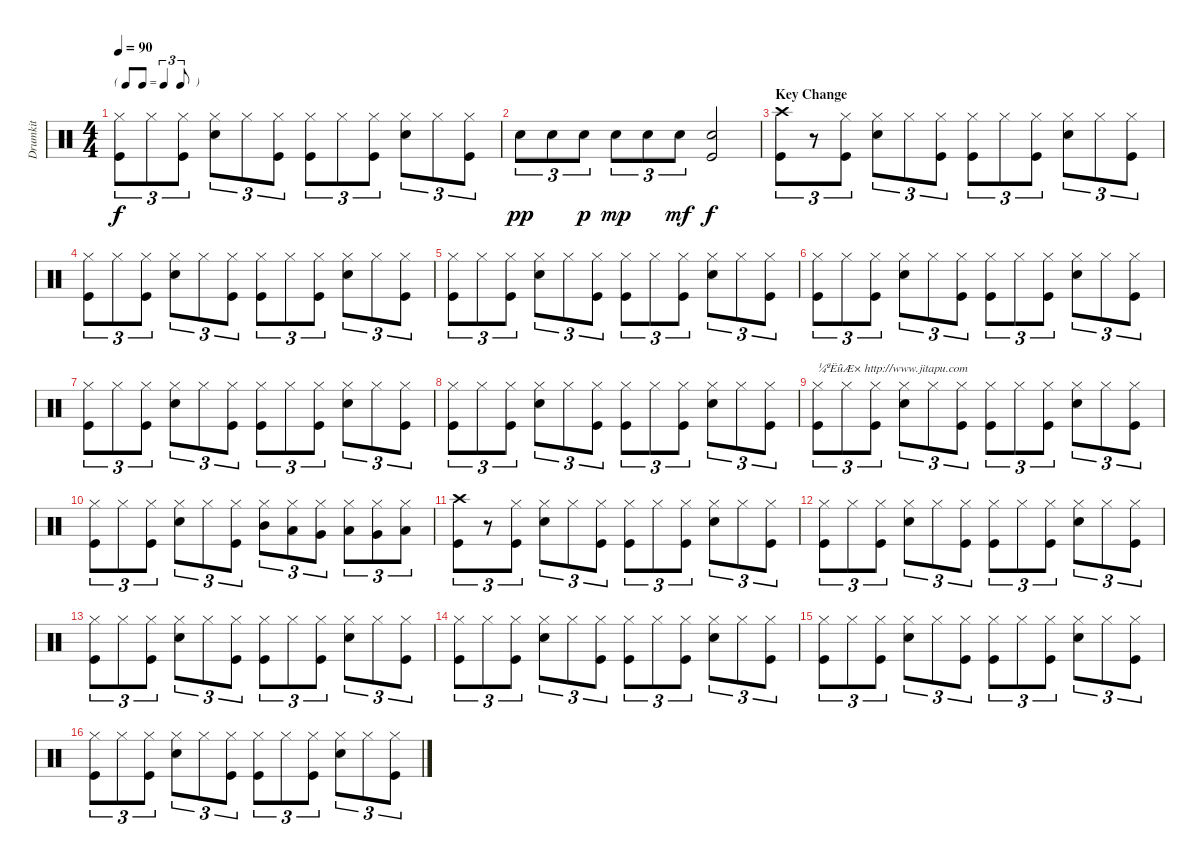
\track ("Drumkit" "Drumkit") {instrument percussion}
\staff {score}
\articulation defaults
\ts (4 4)
\tf triplet8th
\tempo 90
\clef neutral
\ks c
("Hi-Hat (closed)" "Kick (hit)").8{tu (3 2) dy f} "Hi-Hat (closed)".8{tu (3 2)} ("Hi-Hat (closed)" "Kick (hit)").8{tu (3 2)} ("Hi-Hat (closed)" "Snare (hit) 2").8{tu (3 2)} "Hi-Hat (closed)".8{tu (3 2)} ("Hi-Hat (closed)" "Kick (hit)").8{tu (3 2)} ("Hi-Hat (closed)" "Kick (hit)").8{tu (3 2)} "Hi-Hat (closed)".8{tu (3 2)} ("Hi-Hat (closed)" "Kick (hit)").8{tu (3 2)} ("Hi-Hat (closed)" "Snare (hit) 2").8{tu (3 2)} "Hi-Hat (closed)".8{tu (3 2)} ("Hi-Hat (closed)" "Kick (hit)").8{tu (3 2)} |
"Snare (hit) 2".8{tu (3 2) dy pp} "Snare (hit) 2".8{tu (3 2)} "Snare (hit) 2".8{tu (3 2) dy p} "Snare (hit) 2".8{tu (3 2) dy mp} "Snare (hit) 2".8{tu (3 2)} "Snare (hit) 2".8{tu (3 2) dy mf} ("Kick (hit)" "Snare (hit) 2").2{dy f} |
\section ("" "Key Change")
("Crash high (hit)" "Kick (hit)").8{tu (3 2)} r.8{tu (3 2)} ("Hi-Hat (closed)" "Kick (hit)").8{tu (3 2)} ("Hi-Hat (closed)" "Snare (hit) 2").8{tu (3 2)} "Hi-Hat (closed)".8{tu (3 2)} ("Hi-Hat (closed)" "Kick (hit)").8{tu (3 2)} ("Hi-Hat (closed)" "Kick (hit)").8{tu (3 2)} "Hi-Hat (closed)".8{tu (3 2)} ("Hi-Hat (closed)" "Kick (hit)").8{tu (3 2)} ("Hi-Hat (closed)" "Snare (hit) 2").8{tu (3 2)} "Hi-Hat (closed)".8{tu (3 2)} ("Hi-Hat (closed)" "Kick (hit)").8{tu (3 2)} |
("Hi-Hat (closed)" "Kick (hit)").8{tu (3 2)} "Hi-Hat (closed)".8{tu (3 2)} ("Hi-Hat (closed)" "Kick (hit)").8{tu (3 2)} ("Hi-Hat (closed)" "Snare (hit) 2").8{tu (3 2)} "Hi-Hat (closed)".8{tu (3 2)} ("Hi-Hat (closed)" "Kick (hit)").8{tu (3 2)} ("Hi-Hat (closed)" "Kick (hit)").8{tu (3 2)} "Hi-Hat (closed)".8{tu (3 2)} ("Hi-Hat (closed)" "Kick (hit)").8{tu (3 2)} ("Hi-Hat (closed)" "Snare (hit) 2").8{tu (3 2)} "Hi-Hat (closed)".8{tu (3 2)} ("Hi-Hat (closed)" "Kick (hit)").8{tu (3 2)} |
("Hi-Hat (closed)" "Kick (hit)").8{tu (3 2)} "Hi-Hat (closed)".8{tu (3 2)} ("Hi-Hat (closed)" "Kick (hit)").8{tu (3 2)} ("Hi-Hat (closed)" "Snare (hit) 2").8{tu (3 2)} "Hi-Hat (closed)".8{tu (3 2)} ("Hi-Hat (closed)" "Kick (hit)").8{tu (3 2)} ("Hi-Hat (closed)" "Kick (hit)").8{tu (3 2)} "Hi-Hat (closed)".8{tu (3 2)} ("Hi-Hat (closed)" "Kick (hit)").8{tu (3 2)} ("Hi-Hat (closed)" "Snare (hit) 2").8{tu (3 2)} "Hi-Hat (closed)".8{tu (3 2)} ("Hi-Hat (closed)" "Kick (hit)").8{tu (3 2)} |
("Hi-Hat (closed)" "Kick (hit)").8{tu (3 2)} "Hi-Hat (closed)".8{tu (3 2)} ("Hi-Hat (closed)" "Kick (hit)").8{tu (3 2)} ("Hi-Hat (closed)" "Snare (hit) 2").8{tu (3 2)} "Hi-Hat (closed)".8{tu (3 2)} ("Hi-Hat (closed)" "Kick (hit)").8{tu (3 2)} ("Hi-Hat (closed)" "Kick (hit)").8{tu (3 2)} "Hi-Hat (closed)".8{tu (3 2)} ("Hi-Hat (closed)" "Kick (hit)").8{tu (3 2)} ("Hi-Hat (closed)" "Snare (hit) 2").8{tu (3 2)} "Hi-Hat (closed)".8{tu (3 2)} ("Hi-Hat (closed)" "Kick (hit)").8{tu (3 2)} |
("Hi-Hat (closed)" "Kick (hit)").8{tu (3 2)} "Hi-Hat (closed)".8{tu (3 2)} ("Hi-Hat (closed)" "Kick (hit)").8{tu (3 2)} ("Hi-Hat (closed)" "Snare (hit) 2").8{tu (3 2)} "Hi-Hat (closed)".8{tu (3 2)} ("Hi-Hat (closed)" "Kick (hit)").8{tu (3 2)} ("Hi-Hat (closed)" "Kick (hit)").8{tu (3 2)} "Hi-Hat (closed)".8{tu (3 2)} ("Hi-Hat (closed)" "Kick (hit)").8{tu (3 2)} ("Hi-Hat (closed)" "Snare (hit) 2").8{tu (3 2)} "Hi-Hat (closed)".8{tu (3 2)} ("Hi-Hat (closed)" "Kick (hit)").8{tu (3 2)} |
("Hi-Hat (closed)" "Kick (hit)").8{tu (3 2)} "Hi-Hat (closed)".8{tu (3 2)} ("Hi-Hat (closed)" "Kick (hit)").8{tu (3 2)} ("Hi-Hat (closed)" "Snare (hit) 2").8{tu (3 2)} "Hi-Hat (closed)".8{tu (3 2)} ("Hi-Hat (closed)" "Kick (hit)").8{tu (3 2)} ("Hi-Hat (closed)" "Kick (hit)").8{tu (3 2)} "Hi-Hat (closed)".8{tu (3 2)} ("Hi-Hat (closed)" "Kick (hit)").8{tu (3 2)} ("Hi-Hat (closed)" "Snare (hit) 2").8{tu (3 2)} "Hi-Hat (closed)".8{tu (3 2)} ("Hi-Hat (closed)" "Kick (hit)").8{tu (3 2)} |
("Hi-Hat (closed)" "Kick (hit)").8{tu (3 2) txt "¼ªËûÆ× http://www.jitapu.com"} "Hi-Hat (closed)".8{tu (3 2)} ("Hi-Hat (closed)" "Kick (hit)").8{tu (3 2)} ("Hi-Hat (closed)" "Snare (hit) 2").8{tu (3 2)} "Hi-Hat (closed)".8{tu (3 2)} ("Hi-Hat (closed)" "Kick (hit)").8{tu (3 2)} ("Hi-Hat (closed)" "Kick (hit)").8{tu (3 2)} "Hi-Hat (closed)".8{tu (3 2)} ("Hi-Hat (closed)" "Kick (hit)").8{tu (3 2)} ("Hi-Hat (closed)" "Snare (hit) 2").8{tu (3 2)} "Hi-Hat (closed)".8{tu (3 2)} ("Hi-Hat (closed)" "Kick (hit)").8{tu (3 2)} |
("Hi-Hat (closed)" "Kick (hit)").8{tu (3 2)} "Hi-Hat (closed)".8{tu (3 2)} ("Hi-Hat (closed)" "Kick (hit)").8{tu (3 2)} ("Hi-Hat (closed)" "Snare (hit) 2").8{tu (3 2)} "Hi-Hat (closed)".8{tu (3 2)} ("Hi-Hat (closed)" "Kick (hit)").8{tu (3 2)} ("Hi-Hat (closed)" "Mid Tom (hit)").8{tu (3 2)} ("Hi-Hat (closed)" "Low Tom (hit)").8{tu (3 2)} ("Hi-Hat (closed)" "Very Low Tom (hit)").8{tu (3 2)} ("Hi-Hat (closed)" "Low Tom (hit)").8{tu (3 2)} ("Hi-Hat (closed)" "Very Low Tom (hit)").8{tu (3 2)} ("Hi-Hat (closed)" "Low Floor Tom (hit)").8{tu (3 2)} |
("Crash high (hit)" "Kick (hit)").8{tu (3 2)} r.8{tu (3 2)} ("Hi-Hat (closed)" "Kick (hit)").8{tu (3 2)} ("Hi-Hat (closed)" "Snare (hit) 2").8{tu (3 2)} "Hi-Hat (closed)".8{tu (3 2)} ("Hi-Hat (closed)" "Kick (hit)").8{tu (3 2)} ("Hi-Hat (closed)" "Kick (hit)").8{tu (3 2)} "Hi-Hat (closed)".8{tu (3 2)} ("Hi-Hat (closed)" "Kick (hit)").8{tu (3 2)} ("Hi-Hat (closed)" "Snare (hit) 2").8{tu (3 2)} "Hi-Hat (closed)".8{tu (3 2)} ("Hi-Hat (closed)" "Kick (hit)").8{tu (3 2)} |
("Hi-Hat (closed)" "Kick (hit)").8{tu (3 2)} "Hi-Hat (closed)".8{tu (3 2)} ("Hi-Hat (closed)" "Kick (hit)").8{tu (3 2)} ("Hi-Hat (closed)" "Snare (hit) 2").8{tu (3 2)} "Hi-Hat (closed)".8{tu (3 2)} ("Hi-Hat (closed)" "Kick (hit)").8{tu (3 2)} ("Hi-Hat (closed)" "Kick (hit)").8{tu (3 2)} "Hi-Hat (closed)".8{tu (3 2)} ("Hi-Hat (closed)" "Kick (hit)").8{tu (3 2)} ("Hi-Hat (closed)" "Snare (hit) 2").8{tu (3 2)} "Hi-Hat (closed)".8{tu (3 2)} ("Hi-Hat (closed)" "Kick (hit)").8{tu (3 2)} |
("Hi-Hat (closed)" "Kick (hit)").8{tu (3 2)} "Hi-Hat (closed)".8{tu (3 2)} ("Hi-Hat (closed)" "Kick (hit)").8{tu (3 2)} ("Hi-Hat (closed)" "Snare (hit) 2").8{tu (3 2)} "Hi-Hat (closed)".8{tu (3 2)} ("Hi-Hat (closed)" "Kick (hit)").8{tu (3 2)} ("Hi-Hat (closed)" "Kick (hit)").8{tu (3 2)} "Hi-Hat (closed)".8{tu (3 2)} ("Hi-Hat (closed)" "Kick (hit)").8{tu (3 2)} ("Hi-Hat (closed)" "Snare (hit) 2").8{tu (3 2)} "Hi-Hat (closed)".8{tu (3 2)} ("Hi-Hat (closed)" "Kick (hit)").8{tu (3 2)} |
("Hi-Hat (closed)" "Kick (hit)").8{tu (3 2)} "Hi-Hat (closed)".8{tu (3 2)} ("Hi-Hat (closed)" "Kick (hit)").8{tu (3 2)} ("Hi-Hat (closed)" "Snare (hit) 2").8{tu (3 2)} "Hi-Hat (closed)".8{tu (3 2)} ("Hi-Hat (closed)" "Kick (hit)").8{tu (3 2)} ("Hi-Hat (closed)" "Kick (hit)").8{tu (3 2)} "Hi-Hat (closed)".8{tu (3 2)} ("Hi-Hat (closed)" "Kick (hit)").8{tu (3 2)} ("Hi-Hat (closed)" "Snare (hit) 2").8{tu (3 2)} "Hi-Hat (closed)".8{tu (3 2)} ("Hi-Hat (closed)" "Kick (hit)").8{tu (3 2)} |
("Hi-Hat (closed)" "Kick (hit)").8{tu (3 2)} "Hi-Hat (closed)".8{tu (3 2)} ("Hi-Hat (closed)" "Kick (hit)").8{tu (3 2)} ("Hi-Hat (closed)" "Snare (hit) 2").8{tu (3 2)} "Hi-Hat (closed)".8{tu (3 2)} ("Hi-Hat (closed)" "Kick (hit)").8{tu (3 2)} ("Hi-Hat (closed)" "Kick (hit)").8{tu (3 2)} "Hi-Hat (closed)".8{tu (3 2)} ("Hi-Hat (closed)" "Kick (hit)").8{tu (3 2)} ("Hi-Hat (closed)" "Snare (hit) 2").8{tu (3 2)} "Hi-Hat (closed)".8{tu (3 2)} ("Hi-Hat (closed)" "Kick (hit)").8{tu (3 2)} |
("Hi-Hat (closed)" "Kick (hit)").8{tu (3 2)} "Hi-Hat (closed)".8{tu (3 2)} ("Hi-Hat (closed)" "Kick (hit)").8{tu (3 2)} ("Hi-Hat (closed)" "Snare (hit) 2").8{tu (3 2)} "Hi-Hat (closed)".8{tu (3 2)} ("Hi-Hat (closed)" "Kick (hit)").8{tu (3 2)} ("Hi-Hat (closed)" "Kick (hit)").8{tu (3 2)} "Hi-Hat (closed)".8{tu (3 2)} ("Hi-Hat (closed)" "Kick (hit)").8{tu (3 2)} ("Hi-Hat (closed)" "Snare (hit) 2").8{tu (3 2)} "Hi-Hat (closed)".8{tu (3 2)} ("Hi-Hat (closed)" "Kick (hit)").8{tu (3 2)}
